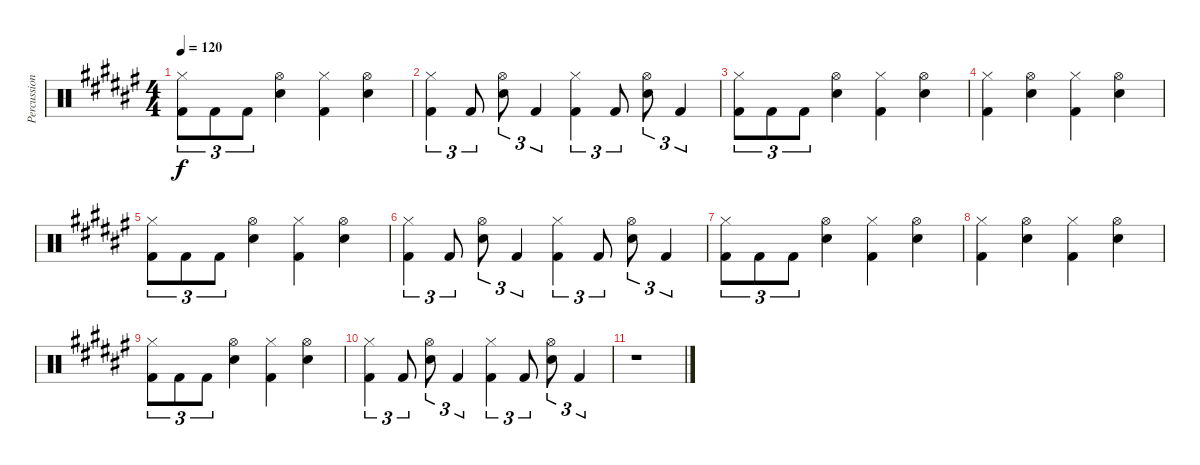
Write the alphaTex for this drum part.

\track ("Percussion" "Percussion") {instrument percussion}
\staff {score}
\articulation defaults
\ts (4 4)
\tempo 120
\clef neutral
\ks d#minor
("Hi-Hat (closed)" "Kick (hit) 2").8{tu (3 2) dy f} "Kick (hit) 2".8{tu (3 2)} "Kick (hit) 2".8{tu (3 2)} ("Hi-Hat (open)" "Electric Snare (hit)").4 ("Hi-Hat (closed)" "Kick (hit) 2").4 ("Hi-Hat (open)" "Electric Snare (hit)").4 |
("Hi-Hat (closed)" "Kick (hit) 2").4{tu (3 2)} "Kick (hit) 2".8{tu (3 2)} ("Hi-Hat (open)" "Electric Snare (hit)").8{tu (3 2)} "Kick (hit) 2".4{tu (3 2)} ("Hi-Hat (closed)" "Kick (hit) 2").4{tu (3 2)} "Kick (hit) 2".8{tu (3 2)} ("Hi-Hat (open)" "Electric Snare (hit)").8{tu (3 2)} "Kick (hit) 2".4{tu (3 2)} |
("Hi-Hat (closed)" "Kick (hit) 2").8{tu (3 2)} "Kick (hit) 2".8{tu (3 2)} "Kick (hit) 2".8{tu (3 2)} ("Hi-Hat (open)" "Electric Snare (hit)").4 ("Hi-Hat (closed)" "Kick (hit) 2").4 ("Hi-Hat (open)" "Electric Snare (hit)").4 |
("Hi-Hat (closed)" "Kick (hit) 2").4 ("Hi-Hat (open)" "Electric Snare (hit)").4 ("Hi-Hat (closed)" "Kick (hit) 2").4 ("Hi-Hat (open)" "Electric Snare (hit)").4 |
("Hi-Hat (closed)" "Kick (hit) 2").8{tu (3 2)} "Kick (hit) 2".8{tu (3 2)} "Kick (hit) 2".8{tu (3 2)} ("Hi-Hat (open)" "Electric Snare (hit)").4 ("Hi-Hat (closed)" "Kick (hit) 2").4 ("Hi-Hat (open)" "Electric Snare (hit)").4 |
("Hi-Hat (closed)" "Kick (hit) 2").4{tu (3 2)} "Kick (hit) 2".8{tu (3 2)} ("Hi-Hat (open)" "Electric Snare (hit)").8{tu (3 2)} "Kick (hit) 2".4{tu (3 2)} ("Hi-Hat (closed)" "Kick (hit) 2").4{tu (3 2)} "Kick (hit) 2".8{tu (3 2)} ("Hi-Hat (open)" "Electric Snare (hit)").8{tu (3 2)} "Kick (hit) 2".4{tu (3 2)} |
("Hi-Hat (closed)" "Kick (hit) 2").8{tu (3 2)} "Kick (hit) 2".8{tu (3 2)} "Kick (hit) 2".8{tu (3 2)} ("Hi-Hat (open)" "Electric Snare (hit)").4 ("Hi-Hat (closed)" "Kick (hit) 2").4 ("Hi-Hat (open)" "Electric Snare (hit)").4 |
("Hi-Hat (closed)" "Kick (hit) 2").4 ("Hi-Hat (open)" "Electric Snare (hit)").4 ("Hi-Hat (closed)" "Kick (hit) 2").4 ("Hi-Hat (open)" "Electric Snare (hit)").4 |
("Hi-Hat (closed)" "Kick (hit) 2").8{tu (3 2)} "Kick (hit) 2".8{tu (3 2)} "Kick (hit) 2".8{tu (3 2)} ("Hi-Hat (open)" "Electric Snare (hit)").4 ("Hi-Hat (closed)" "Kick (hit) 2").4 ("Hi-Hat (open)" "Electric Snare (hit)").4 |
("Hi-Hat (closed)" "Kick (hit) 2").4{tu (3 2)} "Kick (hit) 2".8{tu (3 2)} ("Hi-Hat (open)" "Electric Snare (hit)").8{tu (3 2)} "Kick (hit) 2".4{tu (3 2)} ("Hi-Hat (closed)" "Kick (hit) 2").4{tu (3 2)} "Kick (hit) 2".8{tu (3 2)} ("Hi-Hat (open)" "Electric Snare (hit)").8{tu (3 2)} "Kick (hit) 2".4{tu (3 2)} |
r.1
